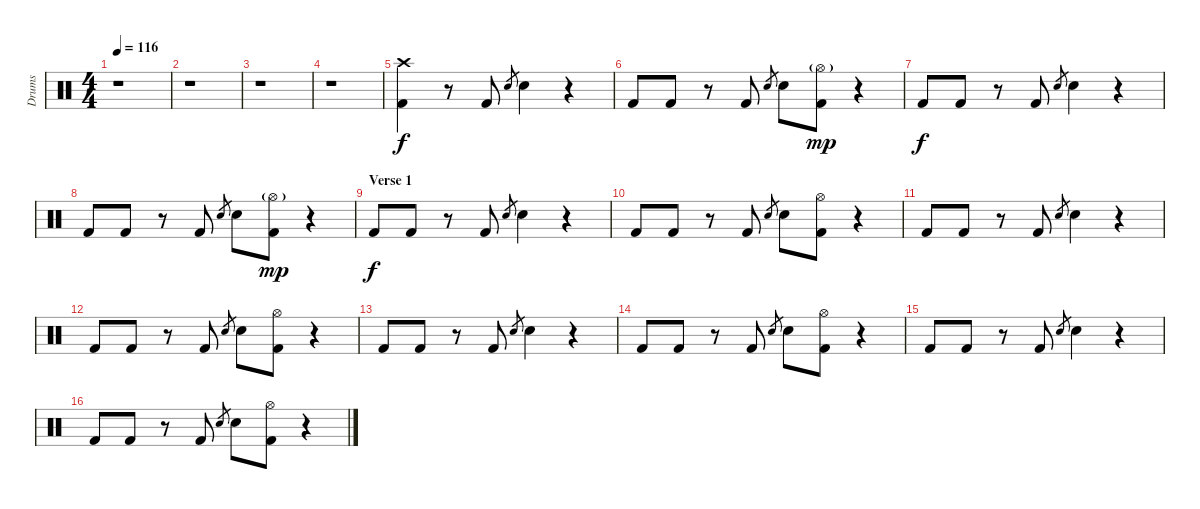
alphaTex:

\track ("Drums" "Drums") {instrument percussion}
\staff {score}
\articulation defaults
\ts (4 4)
\tempo 116
\clef neutral
\ks c
r.1{dy f} |
r.1 |
r.1 |
r.1 |
("Crash high (hit)" "Kick (hit) 2").4 r.8 "Kick (hit) 2".8 "Snare (hit) 2".8{gr} "Snare (hit) 2".4 r.4 |
"Kick (hit) 2".8 "Kick (hit) 2".8 r.8 "Kick (hit) 2".8 "Snare (hit) 2".8{gr} "Snare (hit) 2".8 ("Hi-Hat (open)"{g} "Kick (hit) 2").8{dy mp} r.4 |
"Kick (hit) 2".8{dy f} "Kick (hit) 2".8 r.8 "Kick (hit) 2".8 "Snare (hit) 2".8{gr} "Snare (hit) 2".4 r.4 |
"Kick (hit) 2".8 "Kick (hit) 2".8 r.8 "Kick (hit) 2".8 "Snare (hit) 2".8{gr} "Snare (hit) 2".8 ("Hi-Hat (open)"{g} "Kick (hit) 2").8{dy mp} r.4 |
\section ("" "Verse 1")
"Kick (hit) 2".8{dy f} "Kick (hit) 2".8 r.8 "Kick (hit) 2".8 "Snare (hit) 2".8{gr} "Snare (hit) 2".4 r.4 |
"Kick (hit) 2".8 "Kick (hit) 2".8 r.8 "Kick (hit) 2".8 "Snare (hit) 2".8{gr} "Snare (hit) 2".8 ("Hi-Hat (open)" "Kick (hit) 2").8 r.4 |
"Kick (hit) 2".8 "Kick (hit) 2".8 r.8 "Kick (hit) 2".8 "Snare (hit) 2".8{gr} "Snare (hit) 2".4 r.4 |
"Kick (hit) 2".8 "Kick (hit) 2".8 r.8 "Kick (hit) 2".8 "Snare (hit) 2".8{gr} "Snare (hit) 2".8 ("Hi-Hat (open)" "Kick (hit) 2").8 r.4 |
"Kick (hit) 2".8 "Kick (hit) 2".8 r.8 "Kick (hit) 2".8 "Snare (hit) 2".8{gr} "Snare (hit) 2".4 r.4 |
"Kick (hit) 2".8 "Kick (hit) 2".8 r.8 "Kick (hit) 2".8 "Snare (hit) 2".8{gr} "Snare (hit) 2".8 ("Hi-Hat (open)" "Kick (hit) 2").8 r.4 |
"Kick (hit) 2".8 "Kick (hit) 2".8 r.8 "Kick (hit) 2".8 "Snare (hit) 2".8{gr} "Snare (hit) 2".4 r.4 |
"Kick (hit) 2".8 "Kick (hit) 2".8 r.8 "Kick (hit) 2".8 "Snare (hit) 2".8{gr} "Snare (hit) 2".8 ("Hi-Hat (open)" "Kick (hit) 2").8 r.4
